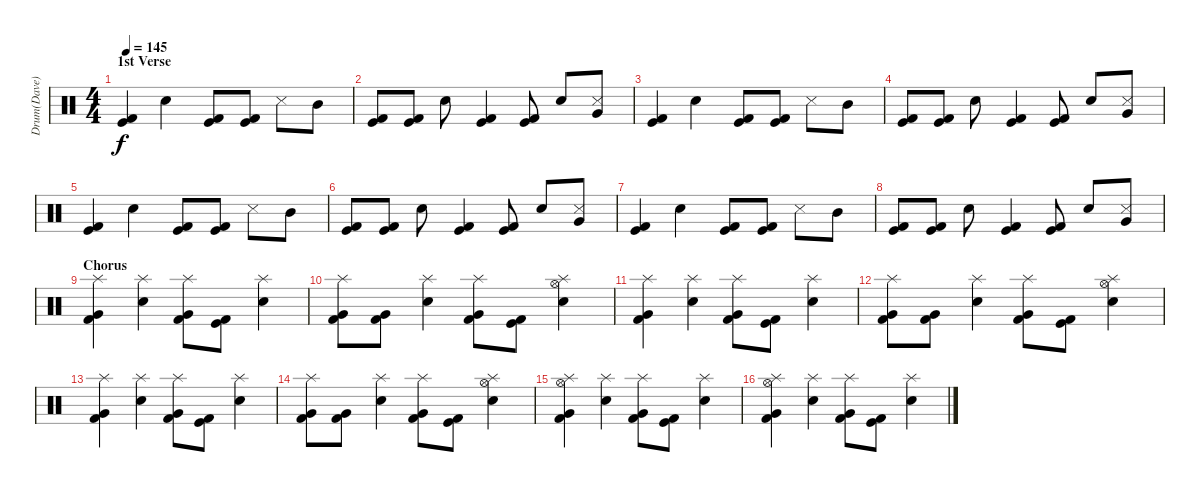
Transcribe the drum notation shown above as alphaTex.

\track ("Drum(Dave)" "Drum(Dave)") {instrument percussion}
\staff {score}
\articulation defaults
\ts (4 4)
\section ("" "1st Verse")
\tempo 145
\clef neutral
\ks c
("Kick (hit) 2" "Kick (hit)").4{dy f} "Electric Snare (hit)".4 ("Kick (hit) 2" "Kick (hit)").8 ("Kick (hit) 2" "Kick (hit)").8 "Snare (side stick) 3".8 "Mid Tom (hit)".8 |
("Kick (hit) 2" "Kick (hit)").8 ("Kick (hit) 2" "Kick (hit)").8 "Electric Snare (hit)".8 ("Kick (hit) 2" "Kick (hit)").4 ("Kick (hit) 2" "Kick (hit)").8 "Electric Snare (hit)".8 ("Very Low Tom (hit)" "Snare (side stick) 3").8 |
("Kick (hit) 2" "Kick (hit)").4 "Electric Snare (hit)".4 ("Kick (hit) 2" "Kick (hit)").8 ("Kick (hit) 2" "Kick (hit)").8 "Snare (side stick) 3".8 "Mid Tom (hit)".8 |
("Kick (hit) 2" "Kick (hit)").8 ("Kick (hit) 2" "Kick (hit)").8 "Electric Snare (hit)".8 ("Kick (hit) 2" "Kick (hit)").4 ("Kick (hit) 2" "Kick (hit)").8 "Electric Snare (hit)".8 ("Very Low Tom (hit)" "Snare (side stick) 3").8 |
("Kick (hit) 2" "Kick (hit)").4 "Electric Snare (hit)".4 ("Kick (hit) 2" "Kick (hit)").8 ("Kick (hit) 2" "Kick (hit)").8 "Snare (side stick) 3".8 "Mid Tom (hit)".8 |
("Kick (hit) 2" "Kick (hit)").8 ("Kick (hit) 2" "Kick (hit)").8 "Electric Snare (hit)".8 ("Kick (hit) 2" "Kick (hit)").4 ("Kick (hit) 2" "Kick (hit)").8 "Electric Snare (hit)".8 ("Very Low Tom (hit)" "Snare (side stick) 3").8 |
("Kick (hit) 2" "Kick (hit)").4 "Electric Snare (hit)".4 ("Kick (hit) 2" "Kick (hit)").8 ("Kick (hit) 2" "Kick (hit)").8 "Snare (side stick) 3".8 "Mid Tom (hit)".8 |
("Kick (hit) 2" "Kick (hit)").8 ("Kick (hit) 2" "Kick (hit)").8 "Electric Snare (hit)".8 ("Kick (hit) 2" "Kick (hit)").4 ("Kick (hit) 2" "Kick (hit)").8 "Electric Snare (hit)".8 ("Very Low Tom (hit)" "Snare (side stick) 3").8 |
\section ("" "Chorus")
("Kick (hit) 2" "Very Low Tom (hit)" "Splash (hit)").4 ("Electric Snare (hit)" "Splash (hit)").4 ("Very Low Tom (hit)" "Splash (hit)" "Kick (hit) 2").8 ("Kick (hit)" "Kick (hit) 2").8 ("Splash (hit)" "Electric Snare (hit)").4 |
("Kick (hit) 2" "Very Low Tom (hit)" "Splash (hit)").8 ("Kick (hit) 2" "Very Low Tom (hit)").8 ("Electric Snare (hit)" "Splash (hit)").4 ("Very Low Tom (hit)" "Splash (hit)" "Kick (hit) 2").8 ("Kick (hit)" "Kick (hit) 2").8 ("Splash (hit)" "Electric Snare (hit)" "Hi-Hat (open)").4 |
("Kick (hit) 2" "Very Low Tom (hit)" "Splash (hit)").4 ("Electric Snare (hit)" "Splash (hit)").4 ("Very Low Tom (hit)" "Splash (hit)" "Kick (hit) 2").8 ("Kick (hit)" "Kick (hit) 2").8 ("Splash (hit)" "Electric Snare (hit)").4 |
("Kick (hit) 2" "Very Low Tom (hit)" "Splash (hit)").8 ("Kick (hit) 2" "Very Low Tom (hit)").8 ("Electric Snare (hit)" "Splash (hit)").4 ("Very Low Tom (hit)" "Splash (hit)" "Kick (hit) 2").8 ("Kick (hit)" "Kick (hit) 2").8 ("Splash (hit)" "Electric Snare (hit)" "Hi-Hat (open)").4 |
("Kick (hit) 2" "Very Low Tom (hit)" "Splash (hit)").4 ("Electric Snare (hit)" "Splash (hit)").4 ("Very Low Tom (hit)" "Splash (hit)" "Kick (hit) 2").8 ("Kick (hit)" "Kick (hit) 2").8 ("Splash (hit)" "Electric Snare (hit)").4 |
("Kick (hit) 2" "Very Low Tom (hit)" "Splash (hit)").8 ("Kick (hit) 2" "Very Low Tom (hit)").8 ("Electric Snare (hit)" "Splash (hit)").4 ("Very Low Tom (hit)" "Splash (hit)" "Kick (hit) 2").8 ("Kick (hit)" "Kick (hit) 2").8 ("Splash (hit)" "Electric Snare (hit)" "Hi-Hat (open)").4 |
("Kick (hit) 2" "Very Low Tom (hit)" "Splash (hit)" "Hi-Hat (open)").4 ("Electric Snare (hit)" "Splash (hit)").4 ("Very Low Tom (hit)" "Splash (hit)" "Kick (hit) 2").8 ("Kick (hit)" "Kick (hit) 2").8 ("Splash (hit)" "Electric Snare (hit)").4 |
("Kick (hit) 2" "Very Low Tom (hit)" "Splash (hit)" "Hi-Hat (open)").4 ("Electric Snare (hit)" "Splash (hit)").4 ("Very Low Tom (hit)" "Splash (hit)" "Kick (hit) 2").8 ("Kick (hit)" "Kick (hit) 2").8 ("Splash (hit)" "Electric Snare (hit)").4
